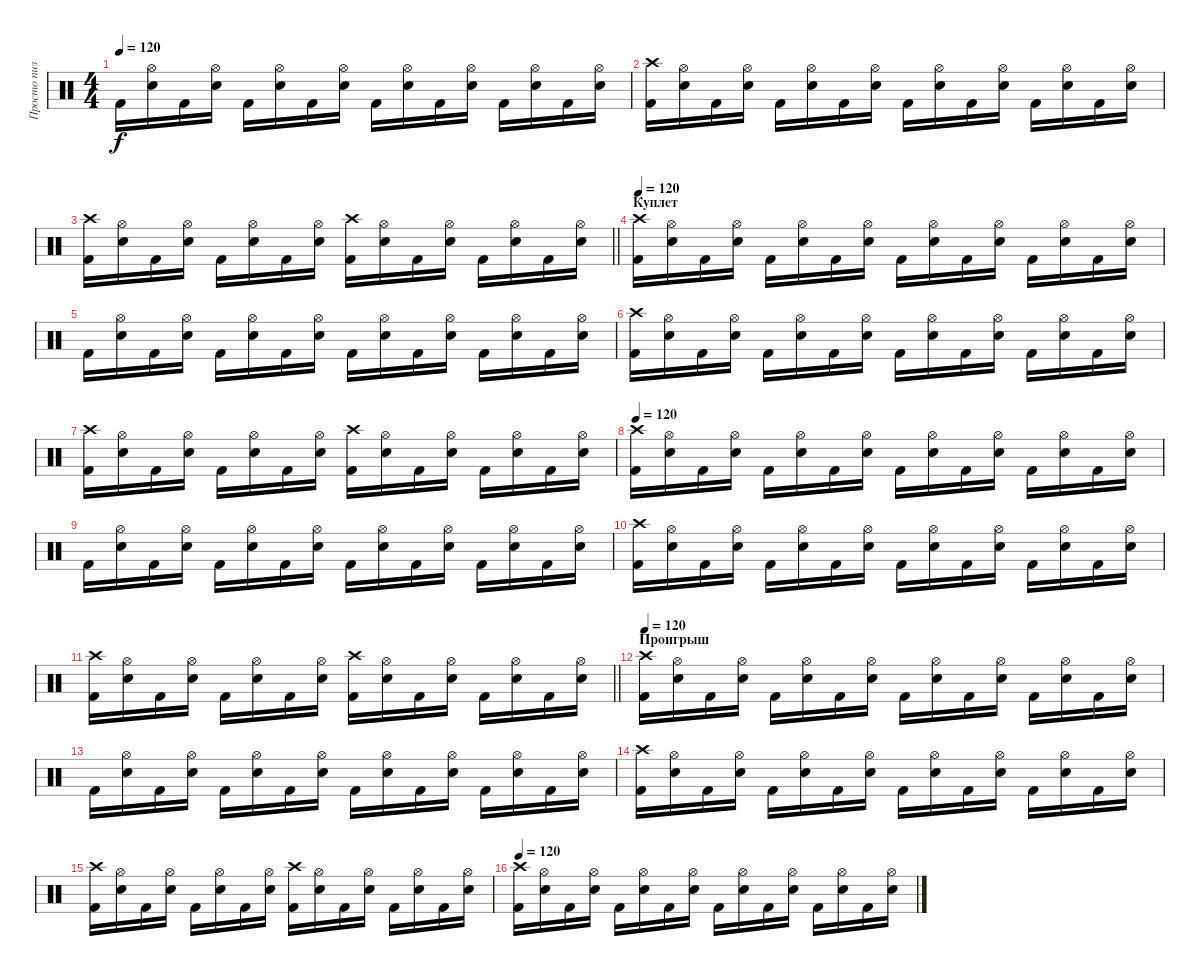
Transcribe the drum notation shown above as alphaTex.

\track ("Просто пиздец какой то" "Просто пиз") {instrument percussion}
\staff {score}
\articulation defaults
\ts (4 4)
\tempo 120
\clef neutral
\ks c "Kick (hit) 2".16{dy f}
("Hi-Hat (open)" "Snare (hit) 2").16 "Kick (hit) 2".16 ("Hi-Hat (open)" "Snare (hit) 2").16 "Kick (hit) 2".16 ("Hi-Hat (open)" "Snare (hit) 2").16 "Kick (hit) 2".16 ("Hi-Hat (open)" "Snare (hit) 2").16 "Kick (hit) 2".16 ("Hi-Hat (open)" "Snare (hit) 2").16 "Kick (hit) 2".16 ("Hi-Hat (open)" "Snare (hit) 2").16 "Kick (hit) 2".16 ("Hi-Hat (open)" "Snare (hit) 2").16 "Kick (hit) 2".16 ("Hi-Hat (open)" "Snare (hit) 2").16 |
("Crash high (hit)" "Kick (hit) 2").16 ("Hi-Hat (open)" "Snare (hit) 2").16 "Kick (hit) 2".16 ("Hi-Hat (open)" "Snare (hit) 2").16 "Kick (hit) 2".16 ("Hi-Hat (open)" "Snare (hit) 2").16 "Kick (hit) 2".16 ("Hi-Hat (open)" "Snare (hit) 2").16 "Kick (hit) 2".16 ("Hi-Hat (open)" "Snare (hit) 2").16 "Kick (hit) 2".16 ("Hi-Hat (open)" "Snare (hit) 2").16 "Kick (hit) 2".16 ("Hi-Hat (open)" "Snare (hit) 2").16 "Kick (hit) 2".16 ("Hi-Hat (open)" "Snare (hit) 2").16 |
\barLineRight lightlight
("Crash high (hit)" "Kick (hit) 2").16 ("Hi-Hat (open)" "Snare (hit) 2").16 "Kick (hit) 2".16 ("Hi-Hat (open)" "Snare (hit) 2").16 "Kick (hit) 2".16 ("Hi-Hat (open)" "Snare (hit) 2").16 "Kick (hit) 2".16 ("Hi-Hat (open)" "Snare (hit) 2").16 ("Crash high (hit)" "Kick (hit) 2").16 ("Hi-Hat (open)" "Snare (hit) 2").16 "Kick (hit) 2".16 ("Hi-Hat (open)" "Snare (hit) 2").16 "Kick (hit) 2".16 ("Hi-Hat (open)" "Snare (hit) 2").16 "Kick (hit) 2".16 ("Hi-Hat (open)" "Snare (hit) 2").16 |
\section ("" "Куплет")
\tempo 120
("Crash high (hit)" "Kick (hit) 2").16 ("Hi-Hat (open)" "Snare (hit) 2").16 "Kick (hit) 2".16 ("Hi-Hat (open)" "Snare (hit) 2").16 "Kick (hit) 2".16 ("Hi-Hat (open)" "Snare (hit) 2").16 "Kick (hit) 2".16 ("Hi-Hat (open)" "Snare (hit) 2").16 "Kick (hit) 2".16 ("Hi-Hat (open)" "Snare (hit) 2").16 "Kick (hit) 2".16 ("Hi-Hat (open)" "Snare (hit) 2").16 "Kick (hit) 2".16 ("Hi-Hat (open)" "Snare (hit) 2").16 "Kick (hit) 2".16 ("Hi-Hat (open)" "Snare (hit) 2").16 |
"Kick (hit) 2".16 ("Hi-Hat (open)" "Snare (hit) 2").16 "Kick (hit) 2".16 ("Hi-Hat (open)" "Snare (hit) 2").16 "Kick (hit) 2".16 ("Hi-Hat (open)" "Snare (hit) 2").16 "Kick (hit) 2".16 ("Hi-Hat (open)" "Snare (hit) 2").16 "Kick (hit) 2".16 ("Hi-Hat (open)" "Snare (hit) 2").16 "Kick (hit) 2".16 ("Hi-Hat (open)" "Snare (hit) 2").16 "Kick (hit) 2".16 ("Hi-Hat (open)" "Snare (hit) 2").16 "Kick (hit) 2".16 ("Hi-Hat (open)" "Snare (hit) 2").16 |
("Crash high (hit)" "Kick (hit) 2").16 ("Hi-Hat (open)" "Snare (hit) 2").16 "Kick (hit) 2".16 ("Hi-Hat (open)" "Snare (hit) 2").16 "Kick (hit) 2".16 ("Hi-Hat (open)" "Snare (hit) 2").16 "Kick (hit) 2".16 ("Hi-Hat (open)" "Snare (hit) 2").16 "Kick (hit) 2".16 ("Hi-Hat (open)" "Snare (hit) 2").16 "Kick (hit) 2".16 ("Hi-Hat (open)" "Snare (hit) 2").16 "Kick (hit) 2".16 ("Hi-Hat (open)" "Snare (hit) 2").16 "Kick (hit) 2".16 ("Hi-Hat (open)" "Snare (hit) 2").16 |
("Crash high (hit)" "Kick (hit) 2").16 ("Hi-Hat (open)" "Snare (hit) 2").16 "Kick (hit) 2".16 ("Hi-Hat (open)" "Snare (hit) 2").16 "Kick (hit) 2".16 ("Hi-Hat (open)" "Snare (hit) 2").16 "Kick (hit) 2".16 ("Hi-Hat (open)" "Snare (hit) 2").16 ("Crash high (hit)" "Kick (hit) 2").16 ("Hi-Hat (open)" "Snare (hit) 2").16 "Kick (hit) 2".16 ("Hi-Hat (open)" "Snare (hit) 2").16 "Kick (hit) 2".16 ("Hi-Hat (open)" "Snare (hit) 2").16 "Kick (hit) 2".16 ("Hi-Hat (open)" "Snare (hit) 2").16 |
\tempo 120
("Crash high (hit)" "Kick (hit) 2").16 ("Hi-Hat (open)" "Snare (hit) 2").16 "Kick (hit) 2".16 ("Hi-Hat (open)" "Snare (hit) 2").16 "Kick (hit) 2".16 ("Hi-Hat (open)" "Snare (hit) 2").16 "Kick (hit) 2".16 ("Hi-Hat (open)" "Snare (hit) 2").16 "Kick (hit) 2".16 ("Hi-Hat (open)" "Snare (hit) 2").16 "Kick (hit) 2".16 ("Hi-Hat (open)" "Snare (hit) 2").16 "Kick (hit) 2".16 ("Hi-Hat (open)" "Snare (hit) 2").16 "Kick (hit) 2".16 ("Hi-Hat (open)" "Snare (hit) 2").16 |
"Kick (hit) 2".16 ("Hi-Hat (open)" "Snare (hit) 2").16 "Kick (hit) 2".16 ("Hi-Hat (open)" "Snare (hit) 2").16 "Kick (hit) 2".16 ("Hi-Hat (open)" "Snare (hit) 2").16 "Kick (hit) 2".16 ("Hi-Hat (open)" "Snare (hit) 2").16 "Kick (hit) 2".16 ("Hi-Hat (open)" "Snare (hit) 2").16 "Kick (hit) 2".16 ("Hi-Hat (open)" "Snare (hit) 2").16 "Kick (hit) 2".16 ("Hi-Hat (open)" "Snare (hit) 2").16 "Kick (hit) 2".16 ("Hi-Hat (open)" "Snare (hit) 2").16 |
("Crash high (hit)" "Kick (hit) 2").16 ("Hi-Hat (open)" "Snare (hit) 2").16 "Kick (hit) 2".16 ("Hi-Hat (open)" "Snare (hit) 2").16 "Kick (hit) 2".16 ("Hi-Hat (open)" "Snare (hit) 2").16 "Kick (hit) 2".16 ("Hi-Hat (open)" "Snare (hit) 2").16 "Kick (hit) 2".16 ("Hi-Hat (open)" "Snare (hit) 2").16 "Kick (hit) 2".16 ("Hi-Hat (open)" "Snare (hit) 2").16 "Kick (hit) 2".16 ("Hi-Hat (open)" "Snare (hit) 2").16 "Kick (hit) 2".16 ("Hi-Hat (open)" "Snare (hit) 2").16 |
\barLineRight lightlight
("Crash high (hit)" "Kick (hit) 2").16 ("Hi-Hat (open)" "Snare (hit) 2").16 "Kick (hit) 2".16 ("Hi-Hat (open)" "Snare (hit) 2").16 "Kick (hit) 2".16 ("Hi-Hat (open)" "Snare (hit) 2").16 "Kick (hit) 2".16 ("Hi-Hat (open)" "Snare (hit) 2").16 ("Crash high (hit)" "Kick (hit) 2").16 ("Hi-Hat (open)" "Snare (hit) 2").16 "Kick (hit) 2".16 ("Hi-Hat (open)" "Snare (hit) 2").16 "Kick (hit) 2".16 ("Hi-Hat (open)" "Snare (hit) 2").16 "Kick (hit) 2".16 ("Hi-Hat (open)" "Snare (hit) 2").16 |
\section ("" "Проигрыш")
\tempo 120
("Crash high (hit)" "Kick (hit) 2").16 ("Hi-Hat (open)" "Snare (hit) 2").16 "Kick (hit) 2".16 ("Hi-Hat (open)" "Snare (hit) 2").16 "Kick (hit) 2".16 ("Hi-Hat (open)" "Snare (hit) 2").16 "Kick (hit) 2".16 ("Hi-Hat (open)" "Snare (hit) 2").16 "Kick (hit) 2".16 ("Hi-Hat (open)" "Snare (hit) 2").16 "Kick (hit) 2".16 ("Hi-Hat (open)" "Snare (hit) 2").16 "Kick (hit) 2".16 ("Hi-Hat (open)" "Snare (hit) 2").16 "Kick (hit) 2".16 ("Hi-Hat (open)" "Snare (hit) 2").16 |
"Kick (hit) 2".16 ("Hi-Hat (open)" "Snare (hit) 2").16 "Kick (hit) 2".16 ("Hi-Hat (open)" "Snare (hit) 2").16 "Kick (hit) 2".16 ("Hi-Hat (open)" "Snare (hit) 2").16 "Kick (hit) 2".16 ("Hi-Hat (open)" "Snare (hit) 2").16 "Kick (hit) 2".16 ("Hi-Hat (open)" "Snare (hit) 2").16 "Kick (hit) 2".16 ("Hi-Hat (open)" "Snare (hit) 2").16 "Kick (hit) 2".16 ("Hi-Hat (open)" "Snare (hit) 2").16 "Kick (hit) 2".16 ("Hi-Hat (open)" "Snare (hit) 2").16 |
("Crash high (hit)" "Kick (hit) 2").16 ("Hi-Hat (open)" "Snare (hit) 2").16 "Kick (hit) 2".16 ("Hi-Hat (open)" "Snare (hit) 2").16 "Kick (hit) 2".16 ("Hi-Hat (open)" "Snare (hit) 2").16 "Kick (hit) 2".16 ("Hi-Hat (open)" "Snare (hit) 2").16 "Kick (hit) 2".16 ("Hi-Hat (open)" "Snare (hit) 2").16 "Kick (hit) 2".16 ("Hi-Hat (open)" "Snare (hit) 2").16 "Kick (hit) 2".16 ("Hi-Hat (open)" "Snare (hit) 2").16 "Kick (hit) 2".16 ("Hi-Hat (open)" "Snare (hit) 2").16 |
("Crash high (hit)" "Kick (hit) 2").16 ("Hi-Hat (open)" "Snare (hit) 2").16 "Kick (hit) 2".16 ("Hi-Hat (open)" "Snare (hit) 2").16 "Kick (hit) 2".16 ("Hi-Hat (open)" "Snare (hit) 2").16 "Kick (hit) 2".16 ("Hi-Hat (open)" "Snare (hit) 2").16 ("Crash high (hit)" "Kick (hit) 2").16 ("Hi-Hat (open)" "Snare (hit) 2").16 "Kick (hit) 2".16 ("Hi-Hat (open)" "Snare (hit) 2").16 "Kick (hit) 2".16 ("Hi-Hat (open)" "Snare (hit) 2").16 "Kick (hit) 2".16 ("Hi-Hat (open)" "Snare (hit) 2").16 |
\tempo 120
("Crash high (hit)" "Kick (hit) 2").16 ("Hi-Hat (open)" "Snare (hit) 2").16 "Kick (hit) 2".16 ("Hi-Hat (open)" "Snare (hit) 2").16 "Kick (hit) 2".16 ("Hi-Hat (open)" "Snare (hit) 2").16 "Kick (hit) 2".16 ("Hi-Hat (open)" "Snare (hit) 2").16 "Kick (hit) 2".16 ("Hi-Hat (open)" "Snare (hit) 2").16 "Kick (hit) 2".16 ("Hi-Hat (open)" "Snare (hit) 2").16 "Kick (hit) 2".16 ("Hi-Hat (open)" "Snare (hit) 2").16 "Kick (hit) 2".16 ("Hi-Hat (open)" "Snare (hit) 2").16
